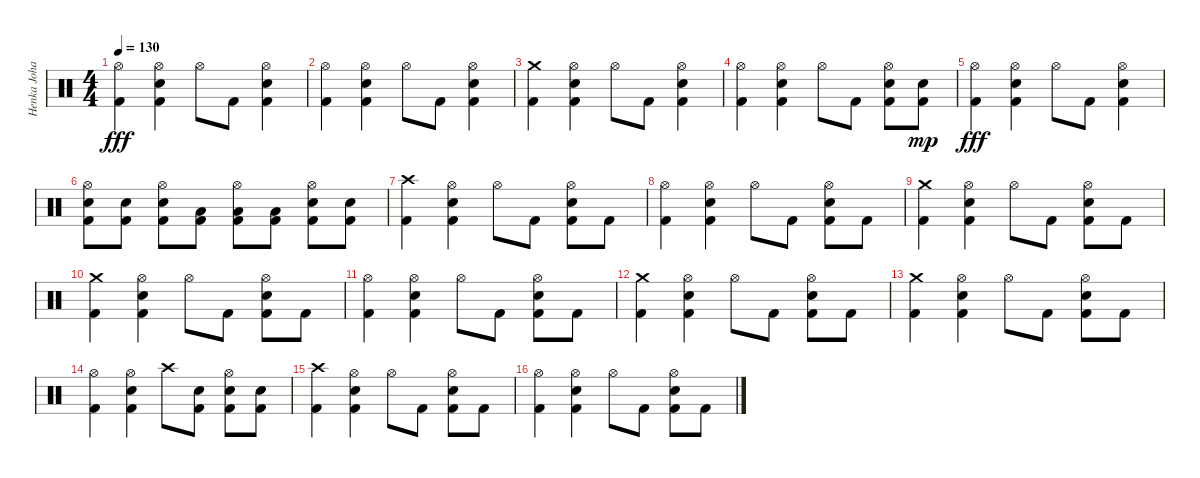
\track ("Henka Johansson" "Henka Joha") {instrument percussion}
\staff {score}
\articulation defaults
\ts (4 4)
\tempo 130
\clef neutral
\ks c
("Hi-Hat (open)" "Kick (hit) 2").4{dy fff} ("Hi-Hat (open)" "Electric Snare (hit)" "Kick (hit) 2").4 "Hi-Hat (open)".8 "Kick (hit) 2".8 ("Hi-Hat (open)" "Electric Snare (hit)" "Kick (hit) 2").4 |
("Hi-Hat (open)" "Kick (hit) 2").4 ("Hi-Hat (open)" "Electric Snare (hit)" "Kick (hit) 2").4 "Hi-Hat (open)".8 "Kick (hit) 2".8 ("Hi-Hat (open)" "Electric Snare (hit)" "Kick (hit) 2").4 |
("Crash medium (hit)" "Kick (hit) 2").4 ("Hi-Hat (open)" "Electric Snare (hit)" "Kick (hit) 2").4 "Hi-Hat (open)".8 "Kick (hit) 2".8 ("Hi-Hat (open)" "Electric Snare (hit)" "Kick (hit) 2").4 |
("Hi-Hat (open)" "Kick (hit) 2").4 ("Hi-Hat (open)" "Electric Snare (hit)" "Kick (hit) 2").4 "Hi-Hat (open)".8 "Kick (hit) 2".8 ("Hi-Hat (open)" "Electric Snare (hit)" "Kick (hit) 2").8 ("Electric Snare (hit)" "Kick (hit) 2").8{dy mp} |
("Hi-Hat (open)" "Kick (hit) 2").4{dy fff} ("Hi-Hat (open)" "Electric Snare (hit)" "Kick (hit) 2").4 "Hi-Hat (open)".8 "Kick (hit) 2".8 ("Hi-Hat (open)" "Electric Snare (hit)" "Kick (hit) 2").4 |
("Hi-Hat (open)" "Electric Snare (hit)" "Kick (hit) 2").8 ("Electric Snare (hit)" "Kick (hit) 2").8 ("Hi-Hat (open)" "Electric Snare (hit)" "Kick (hit) 2").8 ("Low Tom (hit)" "Kick (hit) 2").8 ("Hi-Hat (open)" "Low Tom (hit)" "Kick (hit) 2").8 ("Low Tom (hit)" "Kick (hit) 2").8 ("Hi-Hat (open)" "Electric Snare (hit)" "Kick (hit) 2").8 ("Electric Snare (hit)" "Kick (hit) 2").8 |
("Crash high (hit)" "Kick (hit) 2").4 ("Hi-Hat (open)" "Electric Snare (hit)" "Kick (hit) 2").4 "Hi-Hat (open)".8 "Kick (hit) 2".8 ("Hi-Hat (open)" "Electric Snare (hit)" "Kick (hit) 2").8 "Kick (hit) 2".8 |
("Hi-Hat (open)" "Kick (hit) 2").4 ("Hi-Hat (open)" "Electric Snare (hit)" "Kick (hit) 2").4 "Hi-Hat (open)".8 "Kick (hit) 2".8 ("Hi-Hat (open)" "Electric Snare (hit)" "Kick (hit) 2").8 "Kick (hit) 2".8 |
("Crash medium (hit)" "Kick (hit) 2").4 ("Hi-Hat (open)" "Electric Snare (hit)" "Kick (hit) 2").4 "Hi-Hat (open)".8 "Kick (hit) 2".8 ("Hi-Hat (open)" "Electric Snare (hit)" "Kick (hit) 2").8 "Kick (hit) 2".8 |
("Crash medium (hit)" "Kick (hit) 2").4 ("Hi-Hat (open)" "Electric Snare (hit)" "Kick (hit) 2").4 "Hi-Hat (open)".8 "Kick (hit) 2".8 ("Hi-Hat (open)" "Electric Snare (hit)" "Kick (hit) 2").8 "Kick (hit) 2".8 |
("Hi-Hat (open)" "Kick (hit) 2").4 ("Hi-Hat (open)" "Electric Snare (hit)" "Kick (hit) 2").4 "Hi-Hat (open)".8 "Kick (hit) 2".8 ("Hi-Hat (open)" "Electric Snare (hit)" "Kick (hit) 2").8 "Kick (hit) 2".8 |
("Crash medium (hit)" "Kick (hit) 2").4 ("Hi-Hat (open)" "Electric Snare (hit)" "Kick (hit) 2").4 "Hi-Hat (open)".8 "Kick (hit) 2".8 ("Hi-Hat (open)" "Electric Snare (hit)" "Kick (hit) 2").8 "Kick (hit) 2".8 |
("Crash medium (hit)" "Kick (hit) 2").4 ("Hi-Hat (open)" "Electric Snare (hit)" "Kick (hit) 2").4 "Hi-Hat (open)".8 "Kick (hit) 2".8 ("Hi-Hat (open)" "Electric Snare (hit)" "Kick (hit) 2").8 "Kick (hit) 2".8 |
("Hi-Hat (open)" "Kick (hit) 2").4 ("Hi-Hat (open)" "Electric Snare (hit)" "Kick (hit) 2").4 "Crash high (hit)".8 ("Electric Snare (hit)" "Kick (hit) 2").8 ("Hi-Hat (open)" "Electric Snare (hit)" "Kick (hit) 2").8 ("Electric Snare (hit)" "Kick (hit) 2").8 |
("Crash high (hit)" "Kick (hit) 2").4 ("Hi-Hat (open)" "Electric Snare (hit)" "Kick (hit) 2").4 "Hi-Hat (open)".8 "Kick (hit) 2".8 ("Hi-Hat (open)" "Electric Snare (hit)" "Kick (hit) 2").8 "Kick (hit) 2".8 |
("Hi-Hat (open)" "Kick (hit) 2").4 ("Hi-Hat (open)" "Electric Snare (hit)" "Kick (hit) 2").4 "Hi-Hat (open)".8 "Kick (hit) 2".8 ("Hi-Hat (open)" "Electric Snare (hit)" "Kick (hit) 2").8 "Kick (hit) 2".8
